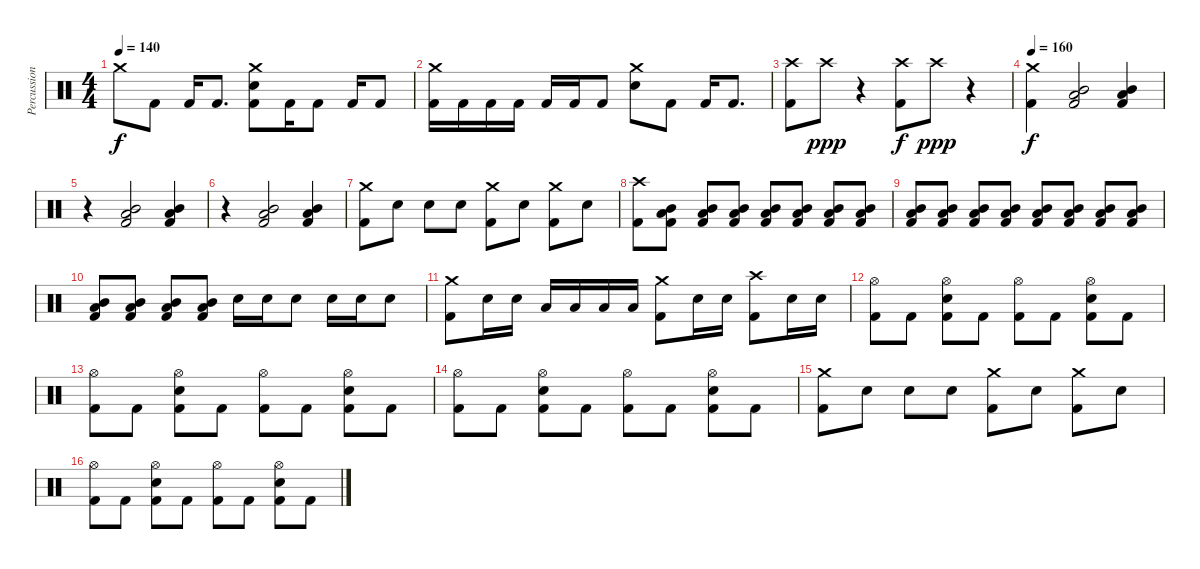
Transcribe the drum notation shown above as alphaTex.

\track ("Percussion" "Percussion") {instrument percussion}
\staff {score}
\articulation defaults
\ts (4 4)
\tempo 140
\clef neutral
\ks c "Crash medium (hit)".8{dy f} "Kick (hit) 2".8 "Kick (hit) 2".16 "Kick (hit) 2".8{d}
("Crash medium (hit)" "Electric Snare (hit)" "Kick (hit) 2").8 "Kick (hit) 2".16 "Kick (hit) 2".8 "Kick (hit) 2".16 "Kick (hit) 2".8 |
("Crash medium (hit)" "Kick (hit) 2").16 "Kick (hit) 2".16 "Kick (hit) 2".16 "Kick (hit) 2".16 "Kick (hit) 2".16 "Kick (hit) 2".16 "Kick (hit) 2".8 ("Crash medium (hit)" "Electric Snare (hit)").8 "Kick (hit) 2".8 "Kick (hit) 2".16 "Kick (hit) 2".8{d} |
("Crash high (hit)" "Kick (hit) 2").8 "Crash high (hit)".8{dy ppp} r.4 ("Crash high (hit)" "Kick (hit) 2").8{dy f} "Crash high (hit)".8{dy ppp} r.4 |
\tempo 160
("Crash medium (hit)" "Kick (hit) 2").4{dy f} ("Mid Tom (hit)" "Low Floor Tom (hit)" "Kick (hit) 2").2 ("Mid Tom (hit)" "Low Floor Tom (hit)" "Kick (hit) 2").4 |
r.4 ("Mid Tom (hit)" "Low Floor Tom (hit)" "Kick (hit) 2").2 ("Mid Tom (hit)" "Low Floor Tom (hit)" "Kick (hit) 2").4 |
r.4 ("Mid Tom (hit)" "Low Floor Tom (hit)" "Kick (hit) 2").2 ("Mid Tom (hit)" "Low Floor Tom (hit)" "Kick (hit) 2").4 |
("Crash medium (hit)" "Kick (hit) 2").8 "Electric Snare (hit)".8 "Electric Snare (hit)".8 "Electric Snare (hit)".8 ("Crash medium (hit)" "Kick (hit) 2").8 "Electric Snare (hit)".8 ("Crash medium (hit)" "Kick (hit) 2").8 "Electric Snare (hit)".8 |
("Crash high (hit)" "Kick (hit) 2").8 ("Mid Tom (hit)" "Low Floor Tom (hit)" "Kick (hit) 2").8 ("Mid Tom (hit)" "Low Floor Tom (hit)" "Kick (hit) 2").8 ("Mid Tom (hit)" "Low Floor Tom (hit)" "Kick (hit) 2").8 ("Mid Tom (hit)" "Low Floor Tom (hit)" "Kick (hit) 2").8 ("Mid Tom (hit)" "Low Floor Tom (hit)" "Kick (hit) 2").8 ("Mid Tom (hit)" "Low Floor Tom (hit)" "Kick (hit) 2").8 ("Mid Tom (hit)" "Low Floor Tom (hit)" "Kick (hit) 2").8 |
("Mid Tom (hit)" "Low Floor Tom (hit)" "Kick (hit) 2").8 ("Mid Tom (hit)" "Low Floor Tom (hit)" "Kick (hit) 2").8 ("Mid Tom (hit)" "Low Floor Tom (hit)" "Kick (hit) 2").8 ("Mid Tom (hit)" "Low Floor Tom (hit)" "Kick (hit) 2").8 ("Mid Tom (hit)" "Low Floor Tom (hit)" "Kick (hit) 2").8 ("Mid Tom (hit)" "Low Floor Tom (hit)" "Kick (hit) 2").8 ("Mid Tom (hit)" "Low Floor Tom (hit)" "Kick (hit) 2").8 ("Mid Tom (hit)" "Low Floor Tom (hit)" "Kick (hit) 2").8 |
("Mid Tom (hit)" "Low Floor Tom (hit)" "Kick (hit) 2").8 ("Mid Tom (hit)" "Low Floor Tom (hit)" "Kick (hit) 2").8 ("Mid Tom (hit)" "Low Floor Tom (hit)" "Kick (hit) 2").8 ("Mid Tom (hit)" "Low Floor Tom (hit)" "Kick (hit) 2").8 "Electric Snare (hit)".16 "Electric Snare (hit)".16 "Electric Snare (hit)".8 "Electric Snare (hit)".16 "Electric Snare (hit)".16 "Electric Snare (hit)".8 |
("Crash medium (hit)" "Kick (hit) 2").8 "Electric Snare (hit)".16 "Electric Snare (hit)".16 "Low Tom (hit)".16 "Low Tom (hit)".16 "Low Tom (hit)".16 "Low Tom (hit)".16 ("Crash medium (hit)" "Kick (hit) 2").8 "Electric Snare (hit)".16 "Electric Snare (hit)".16 ("Crash high (hit)" "Kick (hit) 2").8 "Electric Snare (hit)".16 "Electric Snare (hit)".16 |
("Hi-Hat (open)" "Kick (hit) 2").8 "Kick (hit) 2".8 ("Hi-Hat (open)" "Electric Snare (hit)" "Kick (hit) 2").8 "Kick (hit) 2".8 ("Hi-Hat (open)" "Kick (hit) 2").8 "Kick (hit) 2".8 ("Hi-Hat (open)" "Electric Snare (hit)" "Kick (hit) 2").8 "Kick (hit) 2".8 |
("Hi-Hat (open)" "Kick (hit) 2").8 "Kick (hit) 2".8 ("Hi-Hat (open)" "Electric Snare (hit)" "Kick (hit) 2").8 "Kick (hit) 2".8 ("Hi-Hat (open)" "Kick (hit) 2").8 "Kick (hit) 2".8 ("Hi-Hat (open)" "Electric Snare (hit)" "Kick (hit) 2").8 "Kick (hit) 2".8 |
("Hi-Hat (open)" "Kick (hit) 2").8 "Kick (hit) 2".8 ("Hi-Hat (open)" "Electric Snare (hit)" "Kick (hit) 2").8 "Kick (hit) 2".8 ("Hi-Hat (open)" "Kick (hit) 2").8 "Kick (hit) 2".8 ("Hi-Hat (open)" "Electric Snare (hit)" "Kick (hit) 2").8 "Kick (hit) 2".8 |
("Crash medium (hit)" "Kick (hit) 2").8 "Electric Snare (hit)".8 "Electric Snare (hit)".8 "Electric Snare (hit)".8 ("Crash medium (hit)" "Kick (hit) 2").8 "Electric Snare (hit)".8 ("Crash medium (hit)" "Kick (hit) 2").8 "Electric Snare (hit)".8 |
("Hi-Hat (open)" "Kick (hit) 2").8 "Kick (hit) 2".8 ("Hi-Hat (open)" "Electric Snare (hit)" "Kick (hit) 2").8 "Kick (hit) 2".8 ("Hi-Hat (open)" "Kick (hit) 2").8 "Kick (hit) 2".8 ("Hi-Hat (open)" "Electric Snare (hit)" "Kick (hit) 2").8 "Kick (hit) 2".8
